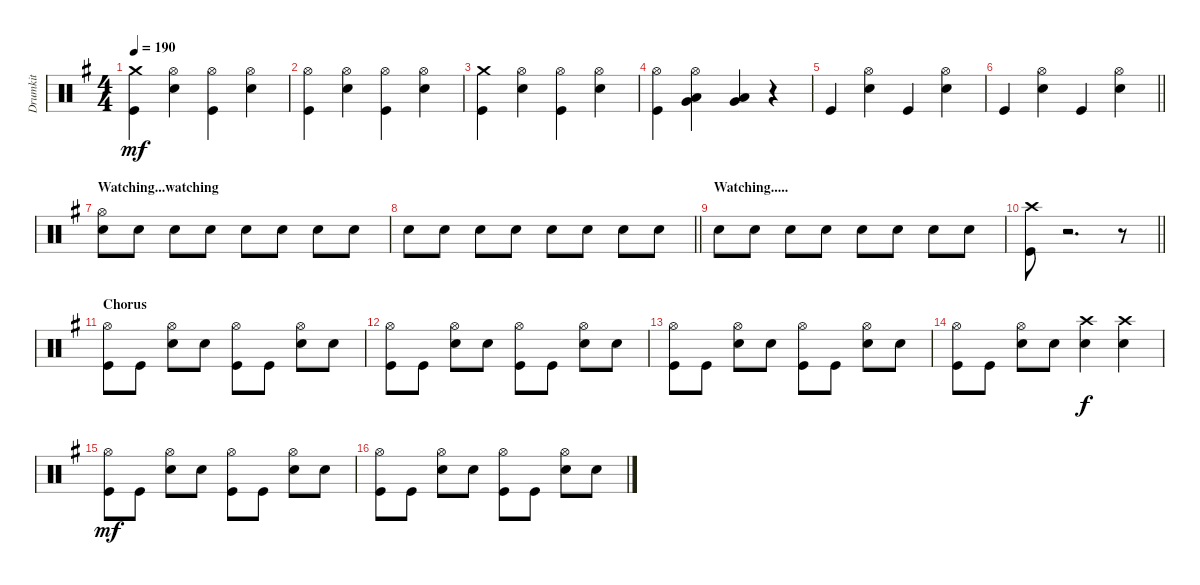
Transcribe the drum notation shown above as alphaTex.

\track ("Drumkit" "Drumkit") {instrument percussion}
\staff {score}
\articulation defaults
\ts (4 4)
\tempo 190
\clef neutral
\ks eminor
("Kick (hit)" "Crash medium (hit)").4{dy mf} ("Snare (hit) 2" "Hi-Hat (open)").4 ("Kick (hit)" "Hi-Hat (open)").4 ("Snare (hit) 2" "Hi-Hat (open)").4 |
("Kick (hit)" "Hi-Hat (open)").4 ("Snare (hit) 2" "Hi-Hat (open)").4 ("Kick (hit)" "Hi-Hat (open)").4 ("Snare (hit) 2" "Hi-Hat (open)").4 |
("Kick (hit)" "Crash medium (hit)").4 ("Snare (hit) 2" "Hi-Hat (open)").4 ("Kick (hit)" "Hi-Hat (open)").4 ("Snare (hit) 2" "Hi-Hat (open)").4 |
("Kick (hit)" "Hi-Hat (open)").4 ("Hi-Hat (open)" "Low Tom (hit)" "Very Low Tom (hit)").4 ("Low Tom (hit)" "Very Low Tom (hit)").4 r.4 |
"Kick (hit)".4 ("Snare (hit) 2" "Hi-Hat (open)").4 "Kick (hit)".4 ("Snare (hit) 2" "Hi-Hat (open)").4 |
\barLineRight lightlight "Kick (hit)".4
("Snare (hit) 2" "Hi-Hat (open)").4 "Kick (hit)".4 ("Snare (hit) 2" "Hi-Hat (open)").4 |
\section ("" "Watching...watching")
("Snare (hit) 2" "Hi-Hat (open)").8 "Snare (hit) 2".8 "Snare (hit) 2".8 "Snare (hit) 2".8 "Snare (hit) 2".8 "Snare (hit) 2".8 "Snare (hit) 2".8 "Snare (hit) 2".8 |
\barLineRight lightlight "Snare (hit) 2".8 "Snare (hit) 2".8 "Snare (hit) 2".8 "Snare (hit) 2".8 "Snare (hit) 2".8 "Snare (hit) 2".8 "Snare (hit) 2".8 "Snare (hit) 2".8
|
\section ("" "Watching.....")
"Snare (hit) 2".8 "Snare (hit) 2".8 "Snare (hit) 2".8 "Snare (hit) 2".8 "Snare (hit) 2".8 "Snare (hit) 2".8 "Snare (hit) 2".8 "Snare (hit) 2".8 |
\barLineRight lightlight
("Crash high (hit)" "Kick (hit)").8 r.2{d} r.8 |
\section ("" "Chorus")
("Kick (hit)" "Hi-Hat (open)").8 "Kick (hit)".8 ("Snare (hit) 2" "Hi-Hat (open)").8 "Snare (hit) 2".8 ("Kick (hit)" "Hi-Hat (open)").8 "Kick (hit)".8 ("Snare (hit) 2" "Hi-Hat (open)").8 "Snare (hit) 2".8 |
("Kick (hit)" "Hi-Hat (open)").8 "Kick (hit)".8 ("Snare (hit) 2" "Hi-Hat (open)").8 "Snare (hit) 2".8 ("Kick (hit)" "Hi-Hat (open)").8 "Kick (hit)".8 ("Snare (hit) 2" "Hi-Hat (open)").8 "Snare (hit) 2".8 |
("Kick (hit)" "Hi-Hat (open)").8 "Kick (hit)".8 ("Snare (hit) 2" "Hi-Hat (open)").8 "Snare (hit) 2".8 ("Kick (hit)" "Hi-Hat (open)").8 "Kick (hit)".8 ("Snare (hit) 2" "Hi-Hat (open)").8 "Snare (hit) 2".8 |
("Kick (hit)" "Hi-Hat (open)").8 "Kick (hit)".8 ("Snare (hit) 2" "Hi-Hat (open)").8 "Snare (hit) 2".8 ("Snare (hit) 2" "Crash high (hit)").4{dy f} ("Snare (hit) 2" "Crash high (hit)").4 |
("Kick (hit)" "Hi-Hat (open)").8{dy mf} "Kick (hit)".8 ("Snare (hit) 2" "Hi-Hat (open)").8 "Snare (hit) 2".8 ("Kick (hit)" "Hi-Hat (open)").8 "Kick (hit)".8 ("Snare (hit) 2" "Hi-Hat (open)").8 "Snare (hit) 2".8 |
("Kick (hit)" "Hi-Hat (open)").8 "Kick (hit)".8 ("Snare (hit) 2" "Hi-Hat (open)").8 "Snare (hit) 2".8 ("Kick (hit)" "Hi-Hat (open)").8 "Kick (hit)".8 ("Snare (hit) 2" "Hi-Hat (open)").8 "Snare (hit) 2".8
